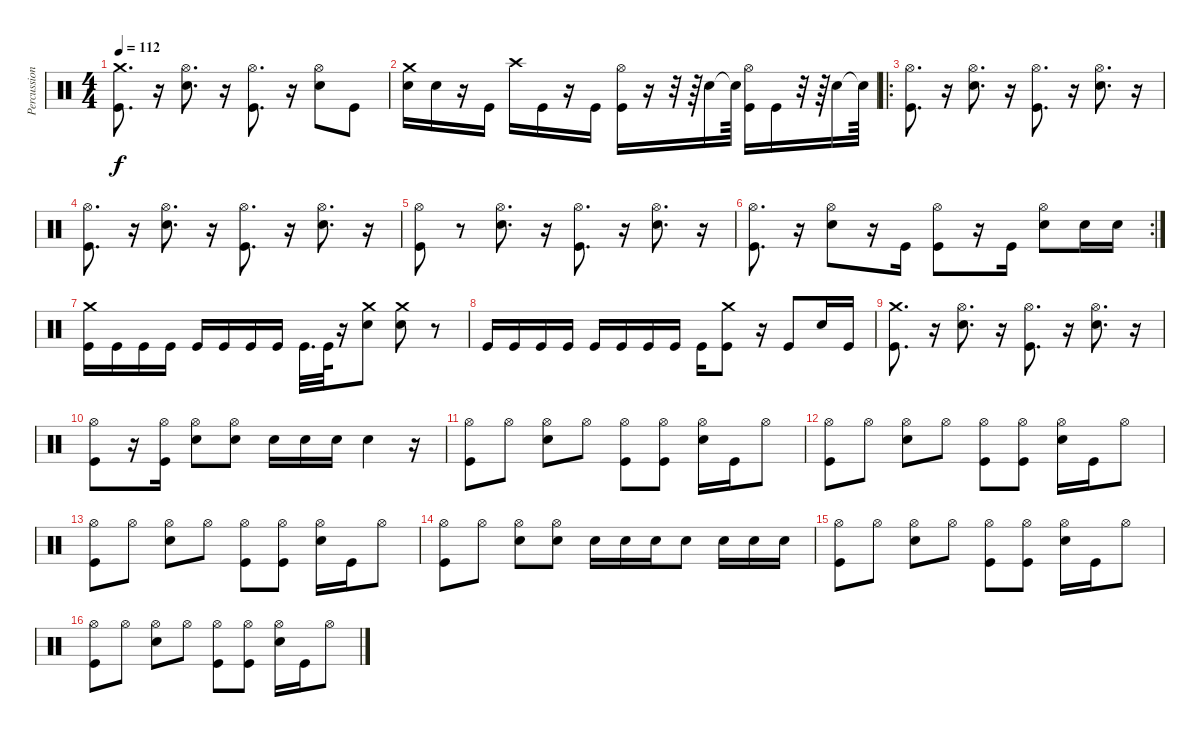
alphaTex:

\track ("Percussion" "Percussion") {instrument percussion}
\staff {score}
\articulation defaults
\ts (4 4)
\tempo 112
\clef neutral
\ks c
("Kick (hit)" "Crash medium (hit)").8{d dy f} r.16 ("Hi-Hat (open)" "Electric Snare (hit)").8{d} r.16 ("Hi-Hat (open)" "Kick (hit)").8{d} r.16 ("Hi-Hat (open)" "Electric Snare (hit)").8 "Kick (hit)".8 |
("Electric Snare (hit)" "Crash medium (hit)").16 "Electric Snare (hit)".16 r.16 "Kick (hit)".16 "Crash high (hit)".16 "Kick (hit)".16 r.16 "Kick (hit)".16 ("Hi-Hat (open)" "Kick (hit)").16 r.16 r.32 r.64 "Electric Snare (hit)".16 "Snare (hit)"{t}.64 ("Hi-Hat (open)" "Kick (hit)").16 "Kick (hit)".16 r.32 r.64 "Electric Snare (hit)".16 "Snare (hit)"{t}.64 |
\ro
("Hi-Hat (open)" "Kick (hit)").8{d} r.16 ("Hi-Hat (open)" "Electric Snare (hit)").8{d} r.16 ("Hi-Hat (open)" "Kick (hit)").8{d} r.16 ("Hi-Hat (open)" "Electric Snare (hit)").8{d} r.16 |
("Hi-Hat (open)" "Kick (hit)").8{d} r.16 ("Hi-Hat (open)" "Electric Snare (hit)").8{d} r.16 ("Hi-Hat (open)" "Kick (hit)").8{d} r.16 ("Hi-Hat (open)" "Electric Snare (hit)").8{d} r.16 |
("Hi-Hat (open)" "Kick (hit)").8 r.8 ("Hi-Hat (open)" "Electric Snare (hit)").8{d} r.16 ("Hi-Hat (open)" "Kick (hit)").8{d} r.16 ("Hi-Hat (open)" "Electric Snare (hit)").8{d} r.16 |
\rc 2
("Hi-Hat (open)" "Kick (hit)").8{d} r.16 ("Hi-Hat (open)" "Electric Snare (hit)").8 r.16 "Kick (hit)".16 ("Hi-Hat (open)" "Kick (hit)").8 r.16 "Kick (hit)".16 ("Hi-Hat (open)" "Electric Snare (hit)").8 "Electric Snare (hit)".16 "Electric Snare (hit)".16 |
("Kick (hit)" "Crash medium (hit)").16 "Kick (hit)".16 "Kick (hit)".16 "Kick (hit)".16 "Kick (hit)".16 "Kick (hit)".16 "Kick (hit)".16 "Kick (hit)".16 "Kick (hit)".32{d} "Kick (hit)".64 r.16 ("Electric Snare (hit)" "Crash medium (hit)").8 ("Electric Snare (hit)" "Crash medium (hit)").8 r.8 |
"Kick (hit)".16 "Kick (hit)".16 "Kick (hit)".16 "Kick (hit)".16 "Kick (hit)".16 "Kick (hit)".16 "Kick (hit)".16 "Kick (hit)".16 "Kick (hit)".16 ("Crash medium (hit)" "Kick (hit)").8 r.16 "Kick (hit)".8 "Electric Snare (hit)".16 "Kick (hit)".16 |
("Kick (hit)" "Crash medium (hit)").8{d} r.16 ("Hi-Hat (open)" "Electric Snare (hit)").8{d} r.16 ("Hi-Hat (open)" "Kick (hit)").8{d} r.16 ("Hi-Hat (open)" "Electric Snare (hit)").8{d} r.16 |
("Hi-Hat (open)" "Kick (hit)").8 r.16 ("Hi-Hat (open)" "Kick (hit)").16 ("Hi-Hat (open)" "Electric Snare (hit)").8 ("Hi-Hat (open)" "Electric Snare (hit)").8 "Electric Snare (hit)".16 "Electric Snare (hit)".16 "Electric Snare (hit)".16 "Electric Snare (hit)".4 r.16 |
("Hi-Hat (open)" "Kick (hit)").8 "Hi-Hat (open)".8 ("Hi-Hat (open)" "Electric Snare (hit)").8 "Hi-Hat (open)".8 ("Hi-Hat (open)" "Kick (hit)").8 ("Hi-Hat (open)" "Kick (hit)").8 ("Hi-Hat (open)" "Electric Snare (hit)").16 "Kick (hit)".16 "Hi-Hat (open)".8 |
("Hi-Hat (open)" "Kick (hit)").8 "Hi-Hat (open)".8 ("Hi-Hat (open)" "Electric Snare (hit)").8 "Hi-Hat (open)".8 ("Hi-Hat (open)" "Kick (hit)").8 ("Hi-Hat (open)" "Kick (hit)").8 ("Hi-Hat (open)" "Electric Snare (hit)").16 "Kick (hit)".16 "Hi-Hat (open)".8 |
("Hi-Hat (open)" "Kick (hit)").8 "Hi-Hat (open)".8 ("Hi-Hat (open)" "Electric Snare (hit)").8 "Hi-Hat (open)".8 ("Hi-Hat (open)" "Kick (hit)").8 ("Hi-Hat (open)" "Kick (hit)").8 ("Hi-Hat (open)" "Electric Snare (hit)").16 "Kick (hit)".16 "Hi-Hat (open)".8 |
("Hi-Hat (open)" "Kick (hit)").8 "Hi-Hat (open)".8 ("Hi-Hat (open)" "Electric Snare (hit)").8 ("Hi-Hat (open)" "Electric Snare (hit)").8 "Electric Snare (hit)".16 "Electric Snare (hit)".16 "Electric Snare (hit)".16 "Electric Snare (hit)".8 "Electric Snare (hit)".16 "Electric Snare (hit)".16 "Electric Snare (hit)".16 |
("Hi-Hat (open)" "Kick (hit)").8 "Hi-Hat (open)".8 ("Hi-Hat (open)" "Electric Snare (hit)").8 "Hi-Hat (open)".8 ("Hi-Hat (open)" "Kick (hit)").8 ("Hi-Hat (open)" "Kick (hit)").8 ("Hi-Hat (open)" "Electric Snare (hit)").16 "Kick (hit)".16 "Hi-Hat (open)".8 |
("Hi-Hat (open)" "Kick (hit)").8 "Hi-Hat (open)".8 ("Hi-Hat (open)" "Electric Snare (hit)").8 "Hi-Hat (open)".8 ("Hi-Hat (open)" "Kick (hit)").8 ("Hi-Hat (open)" "Kick (hit)").8 ("Hi-Hat (open)" "Electric Snare (hit)").16 "Kick (hit)".16 "Hi-Hat (open)".8
